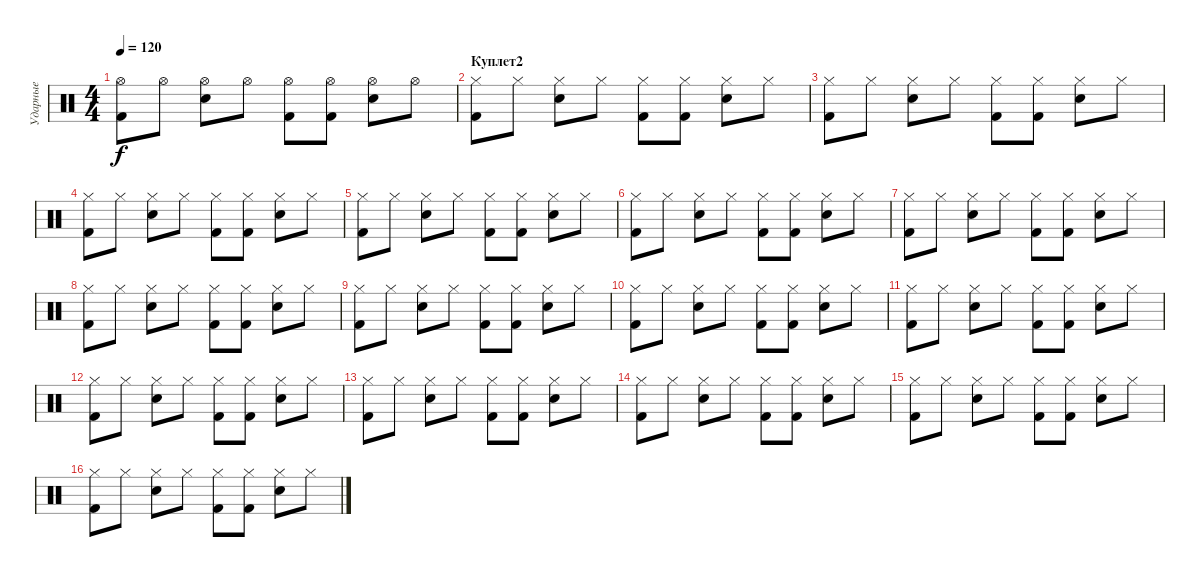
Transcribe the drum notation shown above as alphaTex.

\track ("Ударные" "Ударные") {instrument percussion}
\staff {score}
\articulation defaults
\ts (4 4)
\tempo 120
\clef neutral
\ks c
("Hi-Hat (open)" "Kick (hit) 2").8{dy f} "Hi-Hat (open)".8 ("Hi-Hat (open)" "Snare (hit) 2").8 "Hi-Hat (open)".8 ("Hi-Hat (open)" "Kick (hit) 2").8 ("Hi-Hat (open)" "Kick (hit) 2").8 ("Hi-Hat (open)" "Snare (hit) 2").8 "Hi-Hat (open)".8 |
\section ("" "Куплет2")
("Hi-Hat (closed)" "Kick (hit) 2").8 "Hi-Hat (closed)".8 ("Hi-Hat (closed)" "Snare (hit) 2").8 "Hi-Hat (closed)".8 ("Hi-Hat (closed)" "Kick (hit) 2").8 ("Hi-Hat (closed)" "Kick (hit) 2").8 ("Hi-Hat (closed)" "Snare (hit) 2").8 "Hi-Hat (closed)".8 |
("Hi-Hat (closed)" "Kick (hit) 2").8 "Hi-Hat (closed)".8 ("Hi-Hat (closed)" "Snare (hit) 2").8 "Hi-Hat (closed)".8 ("Hi-Hat (closed)" "Kick (hit) 2").8 ("Hi-Hat (closed)" "Kick (hit) 2").8 ("Hi-Hat (closed)" "Snare (hit) 2").8 "Hi-Hat (closed)".8 |
("Hi-Hat (closed)" "Kick (hit) 2").8 "Hi-Hat (closed)".8 ("Hi-Hat (closed)" "Snare (hit) 2").8 "Hi-Hat (closed)".8 ("Hi-Hat (closed)" "Kick (hit) 2").8 ("Hi-Hat (closed)" "Kick (hit) 2").8 ("Hi-Hat (closed)" "Snare (hit) 2").8 "Hi-Hat (closed)".8 |
("Hi-Hat (closed)" "Kick (hit) 2").8 "Hi-Hat (closed)".8 ("Hi-Hat (closed)" "Snare (hit) 2").8 "Hi-Hat (closed)".8 ("Hi-Hat (closed)" "Kick (hit) 2").8 ("Hi-Hat (closed)" "Kick (hit) 2").8 ("Hi-Hat (closed)" "Snare (hit) 2").8 "Hi-Hat (closed)".8 |
("Hi-Hat (closed)" "Kick (hit) 2").8 "Hi-Hat (closed)".8 ("Hi-Hat (closed)" "Snare (hit) 2").8 "Hi-Hat (closed)".8 ("Hi-Hat (closed)" "Kick (hit) 2").8 ("Hi-Hat (closed)" "Kick (hit) 2").8 ("Hi-Hat (closed)" "Snare (hit) 2").8 "Hi-Hat (closed)".8 |
("Hi-Hat (closed)" "Kick (hit) 2").8 "Hi-Hat (closed)".8 ("Hi-Hat (closed)" "Snare (hit) 2").8 "Hi-Hat (closed)".8 ("Hi-Hat (closed)" "Kick (hit) 2").8 ("Hi-Hat (closed)" "Kick (hit) 2").8 ("Hi-Hat (closed)" "Snare (hit) 2").8 "Hi-Hat (closed)".8 |
("Hi-Hat (closed)" "Kick (hit) 2").8 "Hi-Hat (closed)".8 ("Hi-Hat (closed)" "Snare (hit) 2").8 "Hi-Hat (closed)".8 ("Hi-Hat (closed)" "Kick (hit) 2").8 ("Hi-Hat (closed)" "Kick (hit) 2").8 ("Hi-Hat (closed)" "Snare (hit) 2").8 "Hi-Hat (closed)".8 |
("Hi-Hat (closed)" "Kick (hit) 2").8 "Hi-Hat (closed)".8 ("Hi-Hat (closed)" "Snare (hit) 2").8 "Hi-Hat (closed)".8 ("Hi-Hat (closed)" "Kick (hit) 2").8 ("Hi-Hat (closed)" "Kick (hit) 2").8 ("Hi-Hat (closed)" "Snare (hit) 2").8 "Hi-Hat (closed)".8 |
("Hi-Hat (closed)" "Kick (hit) 2").8 "Hi-Hat (closed)".8 ("Hi-Hat (closed)" "Snare (hit) 2").8 "Hi-Hat (closed)".8 ("Hi-Hat (closed)" "Kick (hit) 2").8 ("Hi-Hat (closed)" "Kick (hit) 2").8 ("Hi-Hat (closed)" "Snare (hit) 2").8 "Hi-Hat (closed)".8 |
("Hi-Hat (closed)" "Kick (hit) 2").8 "Hi-Hat (closed)".8 ("Hi-Hat (closed)" "Snare (hit) 2").8 "Hi-Hat (closed)".8 ("Hi-Hat (closed)" "Kick (hit) 2").8 ("Hi-Hat (closed)" "Kick (hit) 2").8 ("Hi-Hat (closed)" "Snare (hit) 2").8 "Hi-Hat (closed)".8 |
("Hi-Hat (closed)" "Kick (hit) 2").8 "Hi-Hat (closed)".8 ("Hi-Hat (closed)" "Snare (hit) 2").8 "Hi-Hat (closed)".8 ("Hi-Hat (closed)" "Kick (hit) 2").8 ("Hi-Hat (closed)" "Kick (hit) 2").8 ("Hi-Hat (closed)" "Snare (hit) 2").8 "Hi-Hat (closed)".8 |
("Hi-Hat (closed)" "Kick (hit) 2").8 "Hi-Hat (closed)".8 ("Hi-Hat (closed)" "Snare (hit) 2").8 "Hi-Hat (closed)".8 ("Hi-Hat (closed)" "Kick (hit) 2").8 ("Hi-Hat (closed)" "Kick (hit) 2").8 ("Hi-Hat (closed)" "Snare (hit) 2").8 "Hi-Hat (closed)".8 |
("Hi-Hat (closed)" "Kick (hit) 2").8 "Hi-Hat (closed)".8 ("Hi-Hat (closed)" "Snare (hit) 2").8 "Hi-Hat (closed)".8 ("Hi-Hat (closed)" "Kick (hit) 2").8 ("Hi-Hat (closed)" "Kick (hit) 2").8 ("Hi-Hat (closed)" "Snare (hit) 2").8 "Hi-Hat (closed)".8 |
("Hi-Hat (closed)" "Kick (hit) 2").8 "Hi-Hat (closed)".8 ("Hi-Hat (closed)" "Snare (hit) 2").8 "Hi-Hat (closed)".8 ("Hi-Hat (closed)" "Kick (hit) 2").8 ("Hi-Hat (closed)" "Kick (hit) 2").8 ("Hi-Hat (closed)" "Snare (hit) 2").8 "Hi-Hat (closed)".8 |
("Hi-Hat (closed)" "Kick (hit) 2").8 "Hi-Hat (closed)".8 ("Hi-Hat (closed)" "Snare (hit) 2").8 "Hi-Hat (closed)".8 ("Hi-Hat (closed)" "Kick (hit) 2").8 ("Hi-Hat (closed)" "Kick (hit) 2").8 ("Hi-Hat (closed)" "Snare (hit) 2").8 "Hi-Hat (closed)".8
